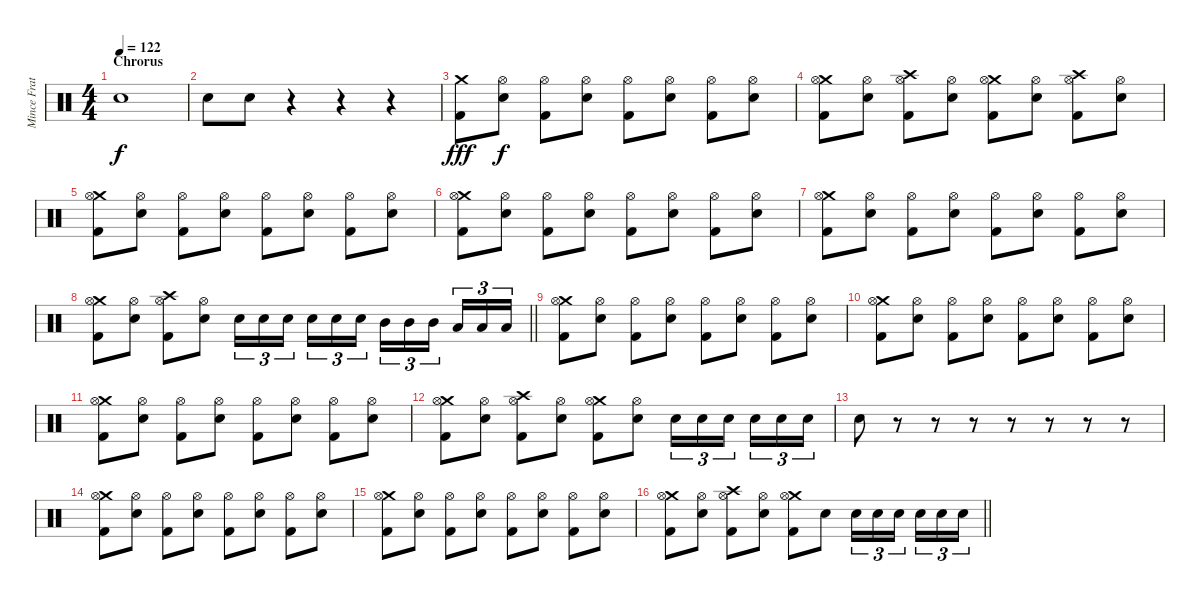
\track ("Mince Fratelli" "Mince Frat") {instrument percussion}
\staff {score}
\articulation defaults
\ts (4 4)
\section ("" "Chrorus")
\tempo 122
\clef neutral
\ks c "Snare (hit) 2".1{dy f}
|
"Snare (hit) 2".8 "Snare (hit) 2".8 r.4 r.4 r.4 |
("Crash medium (hit)" "Kick (hit) 2").8{dy fff} ("Hi-Hat (open)" "Snare (hit) 2").8{dy f} ("Hi-Hat (open)" "Kick (hit) 2").8 ("Hi-Hat (open)" "Snare (hit) 2").8 ("Hi-Hat (open)" "Kick (hit) 2").8 ("Hi-Hat (open)" "Snare (hit) 2").8 ("Hi-Hat (open)" "Kick (hit) 2").8 ("Hi-Hat (open)" "Snare (hit) 2").8 |
("Crash medium (hit)" "Hi-Hat (open)" "Kick (hit) 2").8 ("Hi-Hat (open)" "Snare (hit) 2").8 ("Crash high (hit)" "Hi-Hat (open)" "Kick (hit) 2").8 ("Hi-Hat (open)" "Snare (hit) 2").8 ("Crash medium (hit)" "Hi-Hat (open)" "Kick (hit) 2").8 ("Hi-Hat (open)" "Snare (hit) 2").8 ("Crash high (hit)" "Hi-Hat (open)" "Kick (hit) 2").8 ("Hi-Hat (open)" "Snare (hit) 2").8 |
("Crash medium (hit)" "Hi-Hat (open)" "Kick (hit) 2").8 ("Hi-Hat (open)" "Snare (hit) 2").8 ("Hi-Hat (open)" "Kick (hit) 2").8 ("Hi-Hat (open)" "Snare (hit) 2").8 ("Hi-Hat (open)" "Kick (hit) 2").8 ("Hi-Hat (open)" "Snare (hit) 2").8 ("Hi-Hat (open)" "Kick (hit) 2").8 ("Hi-Hat (open)" "Snare (hit) 2").8 |
("Crash medium (hit)" "Hi-Hat (open)" "Kick (hit) 2").8 ("Hi-Hat (open)" "Snare (hit) 2").8 ("Hi-Hat (open)" "Kick (hit) 2").8 ("Hi-Hat (open)" "Snare (hit) 2").8 ("Hi-Hat (open)" "Kick (hit) 2").8 ("Hi-Hat (open)" "Snare (hit) 2").8 ("Hi-Hat (open)" "Kick (hit) 2").8 ("Hi-Hat (open)" "Snare (hit) 2").8 |
("Crash medium (hit)" "Hi-Hat (open)" "Kick (hit) 2").8 ("Hi-Hat (open)" "Snare (hit) 2").8 ("Hi-Hat (open)" "Kick (hit) 2").8 ("Hi-Hat (open)" "Snare (hit) 2").8 ("Hi-Hat (open)" "Kick (hit) 2").8 ("Hi-Hat (open)" "Snare (hit) 2").8 ("Hi-Hat (open)" "Kick (hit) 2").8 ("Hi-Hat (open)" "Snare (hit) 2").8 |
\barLineRight lightlight
("Crash medium (hit)" "Hi-Hat (open)" "Kick (hit) 2").8 ("Hi-Hat (open)" "Snare (hit) 2").8 ("Crash high (hit)" "Hi-Hat (open)" "Kick (hit) 2").8 ("Hi-Hat (open)" "Snare (hit) 2").8 "Snare (hit) 2".16{tu (3 2)} "Snare (hit) 2".16{tu (3 2)} "Snare (hit) 2".16{tu (3 2)} "Snare (hit) 2".16{tu (3 2)} "Snare (hit) 2".16{tu (3 2)} "Snare (hit) 2".16{tu (3 2)} "Mid Tom (hit)".16{tu (3 2)} "Mid Tom (hit)".16{tu (3 2)} "Mid Tom (hit)".16{tu (3 2)} "Low Tom (hit)".16{tu (3 2)} "Low Tom (hit)".16{tu (3 2)} "Low Tom (hit)".16{tu (3 2)} |
("Crash medium (hit)" "Hi-Hat (open)" "Kick (hit) 2").8 ("Hi-Hat (open)" "Snare (hit) 2").8 ("Hi-Hat (open)" "Kick (hit) 2").8 ("Hi-Hat (open)" "Snare (hit) 2").8 ("Hi-Hat (open)" "Kick (hit) 2").8 ("Hi-Hat (open)" "Snare (hit) 2").8 ("Hi-Hat (open)" "Kick (hit) 2").8 ("Hi-Hat (open)" "Snare (hit) 2").8 |
("Crash medium (hit)" "Hi-Hat (open)" "Kick (hit) 2").8 ("Hi-Hat (open)" "Snare (hit) 2").8 ("Hi-Hat (open)" "Kick (hit) 2").8 ("Hi-Hat (open)" "Snare (hit) 2").8 ("Hi-Hat (open)" "Kick (hit) 2").8 ("Hi-Hat (open)" "Snare (hit) 2").8 ("Hi-Hat (open)" "Kick (hit) 2").8 ("Hi-Hat (open)" "Snare (hit) 2").8 |
("Crash medium (hit)" "Hi-Hat (open)" "Kick (hit) 2").8 ("Hi-Hat (open)" "Snare (hit) 2").8 ("Hi-Hat (open)" "Kick (hit) 2").8 ("Hi-Hat (open)" "Snare (hit) 2").8 ("Hi-Hat (open)" "Kick (hit) 2").8 ("Hi-Hat (open)" "Snare (hit) 2").8 ("Hi-Hat (open)" "Kick (hit) 2").8 ("Hi-Hat (open)" "Snare (hit) 2").8 |
("Crash medium (hit)" "Hi-Hat (open)" "Kick (hit) 2").8 ("Hi-Hat (open)" "Snare (hit) 2").8 ("Crash high (hit)" "Hi-Hat (open)" "Kick (hit) 2").8 ("Hi-Hat (open)" "Snare (hit) 2").8 ("Crash medium (hit)" "Hi-Hat (open)" "Kick (hit) 2").8 ("Hi-Hat (open)" "Snare (hit) 2").8 "Snare (hit) 2".16{tu (3 2)} "Snare (hit) 2".16{tu (3 2)} "Snare (hit) 2".16{tu (3 2)} "Snare (hit) 2".16{tu (3 2)} "Snare (hit) 2".16{tu (3 2)} "Snare (hit) 2".16{tu (3 2)} |
"Snare (hit) 2".8 r.8 r.8 r.8 r.8 r.8 r.8 r.8 |
("Crash medium (hit)" "Hi-Hat (open)" "Kick (hit) 2").8 ("Hi-Hat (open)" "Snare (hit) 2").8 ("Hi-Hat (open)" "Kick (hit) 2").8 ("Hi-Hat (open)" "Snare (hit) 2").8 ("Hi-Hat (open)" "Kick (hit) 2").8 ("Hi-Hat (open)" "Snare (hit) 2").8 ("Hi-Hat (open)" "Kick (hit) 2").8 ("Hi-Hat (open)" "Snare (hit) 2").8 |
("Crash medium (hit)" "Hi-Hat (open)" "Kick (hit) 2").8 ("Hi-Hat (open)" "Snare (hit) 2").8 ("Hi-Hat (open)" "Kick (hit) 2").8 ("Hi-Hat (open)" "Snare (hit) 2").8 ("Hi-Hat (open)" "Kick (hit) 2").8 ("Hi-Hat (open)" "Snare (hit) 2").8 ("Hi-Hat (open)" "Kick (hit) 2").8 ("Hi-Hat (open)" "Snare (hit) 2").8 |
\barLineRight lightlight
("Crash medium (hit)" "Hi-Hat (open)" "Kick (hit) 2").8 ("Hi-Hat (open)" "Snare (hit) 2").8 ("Crash high (hit)" "Hi-Hat (open)" "Kick (hit) 2").8 ("Hi-Hat (open)" "Snare (hit) 2").8 ("Crash medium (hit)" "Hi-Hat (open)" "Kick (hit) 2").8 "Snare (hit) 2".8 "Snare (hit) 2".16{tu (3 2)} "Snare (hit) 2".16{tu (3 2)} "Snare (hit) 2".16{tu (3 2)} "Snare (hit) 2".16{tu (3 2)} "Snare (hit) 2".16{tu (3 2)} "Snare (hit) 2".16{tu (3 2)}
